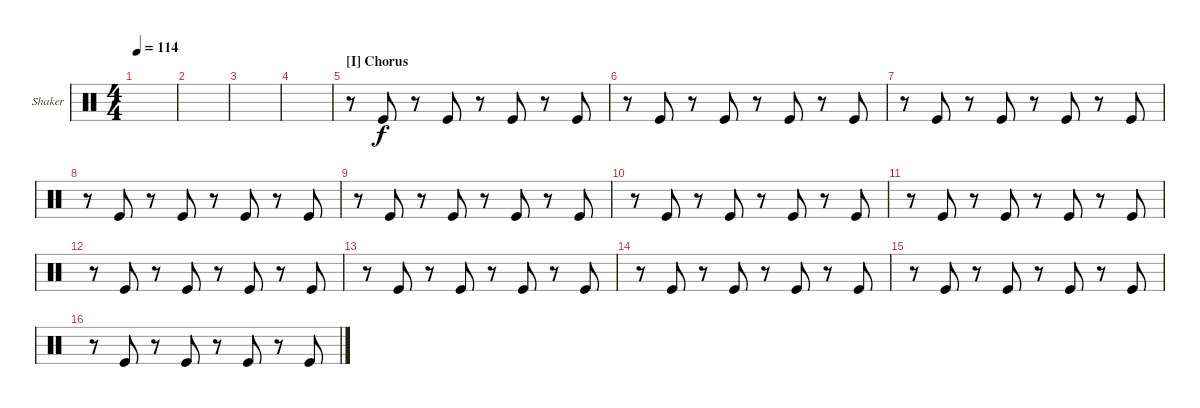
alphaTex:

\defaultSystemsLayout 4
\bracketExtendMode groupsimilarinstruments
\firstSystemTrackNameOrientation horizontal
\otherSystemsTrackNameOrientation horizontal
\track ("Shaker" "Shaker") {instrument percussion}
\staff {score}
\articulation defaults
\ts (4 4)
\tempo 114
\clef neutral
\ks c
|
|
|
|
\section ("I" "Chorus")
r.8 "Kick (hit)".8 r.8 "Kick (hit)".8 r.8 "Kick (hit)".8 r.8 "Kick (hit)".8 |
r.8 "Kick (hit)".8 r.8 "Kick (hit)".8 r.8 "Kick (hit)".8 r.8 "Kick (hit)".8 |
r.8 "Kick (hit)".8 r.8 "Kick (hit)".8 r.8 "Kick (hit)".8 r.8 "Kick (hit)".8 |
r.8 "Kick (hit)".8 r.8 "Kick (hit)".8 r.8 "Kick (hit)".8 r.8 "Kick (hit)".8 |
r.8 "Kick (hit)".8 r.8 "Kick (hit)".8 r.8 "Kick (hit)".8 r.8 "Kick (hit)".8 |
r.8 "Kick (hit)".8 r.8 "Kick (hit)".8 r.8 "Kick (hit)".8 r.8 "Kick (hit)".8 |
r.8 "Kick (hit)".8 r.8 "Kick (hit)".8 r.8 "Kick (hit)".8 r.8 "Kick (hit)".8 |
r.8 "Kick (hit)".8 r.8 "Kick (hit)".8 r.8 "Kick (hit)".8 r.8 "Kick (hit)".8 |
r.8 "Kick (hit)".8 r.8 "Kick (hit)".8 r.8 "Kick (hit)".8 r.8 "Kick (hit)".8 |
r.8 "Kick (hit)".8 r.8 "Kick (hit)".8 r.8 "Kick (hit)".8 r.8 "Kick (hit)".8 |
r.8 "Kick (hit)".8 r.8 "Kick (hit)".8 r.8 "Kick (hit)".8 r.8 "Kick (hit)".8 |
r.8 "Kick (hit)".8 r.8 "Kick (hit)".8 r.8 "Kick (hit)".8 r.8 "Kick (hit)".8
